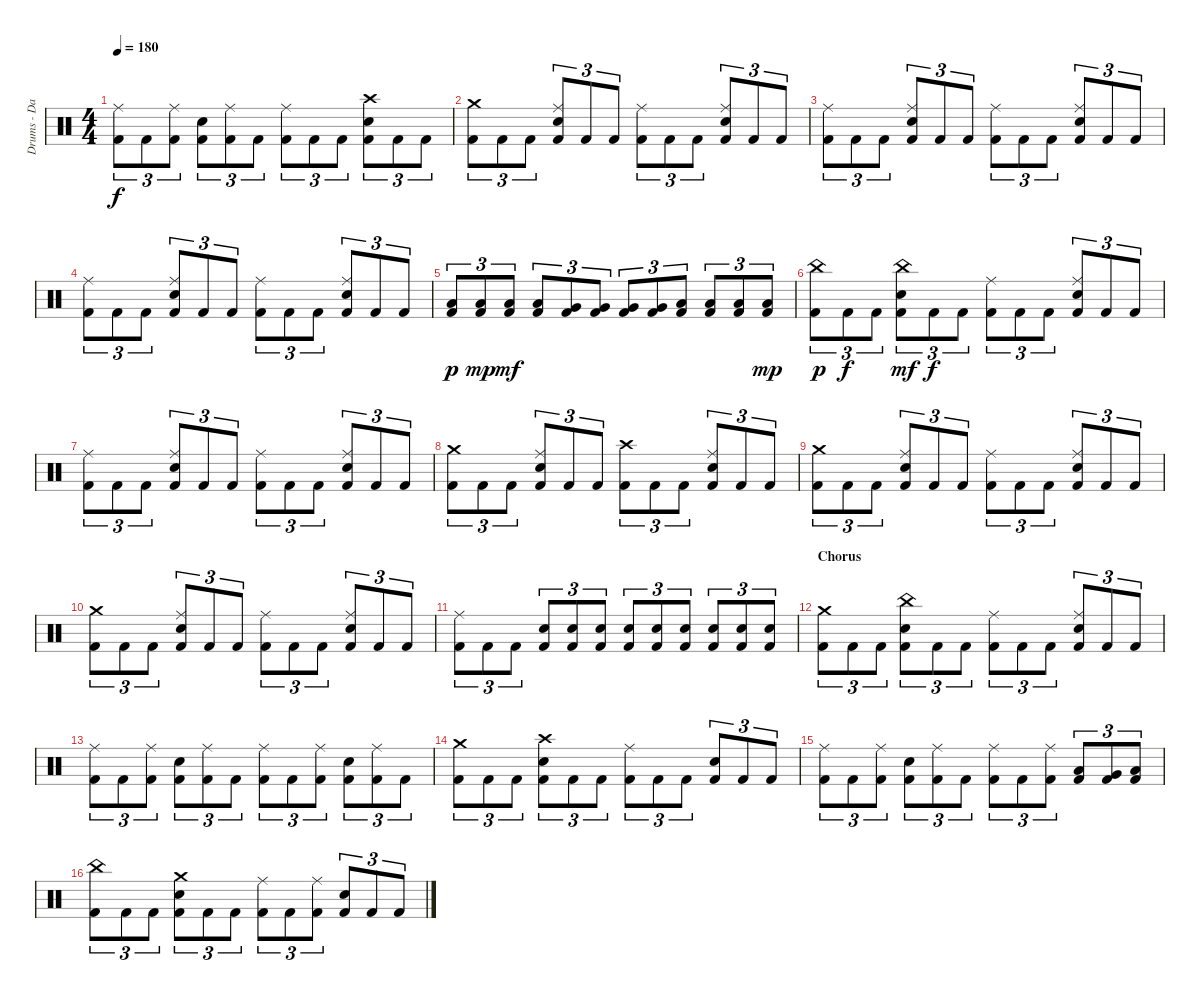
\track ("Drums - Dan Zimmermann" "Drums - Da") {instrument percussion}
\staff {score}
\articulation defaults
\ts (4 4)
\tempo 180
\clef neutral
\ks c
("Kick (hit) 2" "Ride (middle)").8{tu (3 2) dy f} "Kick (hit) 2".8{tu (3 2)} ("Kick (hit) 2" "Ride (middle)").8{tu (3 2)} ("Kick (hit) 2" "Electric Snare (hit)").8{tu (3 2)} ("Kick (hit) 2" "Ride (middle)").8{tu (3 2)} "Kick (hit) 2".8{tu (3 2)} ("Kick (hit) 2" "Ride (middle)").8{tu (3 2)} "Kick (hit) 2".8{tu (3 2)} "Kick (hit) 2".8{tu (3 2)} ("Kick (hit) 2" "Electric Snare (hit)" "Crash high (hit)").8{tu (3 2)} "Kick (hit) 2".8{tu (3 2)} "Kick (hit) 2".8{tu (3 2)} |
("Kick (hit) 2" "Crash medium (hit)").8{tu (3 2)} "Kick (hit) 2".8{tu (3 2)} "Kick (hit) 2".8{tu (3 2)} ("Kick (hit) 2" "Electric Snare (hit)" "Ride (middle)").8{tu (3 2)} "Kick (hit) 2".8{tu (3 2)} "Kick (hit) 2".8{tu (3 2)} ("Kick (hit) 2" "Ride (middle)").8{tu (3 2)} "Kick (hit) 2".8{tu (3 2)} "Kick (hit) 2".8{tu (3 2)} ("Kick (hit) 2" "Electric Snare (hit)" "Ride (middle)").8{tu (3 2)} "Kick (hit) 2".8{tu (3 2)} "Kick (hit) 2".8{tu (3 2)} |
("Kick (hit) 2" "Ride (middle)").8{tu (3 2)} "Kick (hit) 2".8{tu (3 2)} "Kick (hit) 2".8{tu (3 2)} ("Kick (hit) 2" "Electric Snare (hit)" "Ride (middle)").8{tu (3 2)} "Kick (hit) 2".8{tu (3 2)} "Kick (hit) 2".8{tu (3 2)} ("Kick (hit) 2" "Ride (middle)").8{tu (3 2)} "Kick (hit) 2".8{tu (3 2)} "Kick (hit) 2".8{tu (3 2)} ("Kick (hit) 2" "Electric Snare (hit)" "Ride (middle)").8{tu (3 2)} "Kick (hit) 2".8{tu (3 2)} "Kick (hit) 2".8{tu (3 2)} |
("Kick (hit) 2" "Ride (middle)").8{tu (3 2)} "Kick (hit) 2".8{tu (3 2)} "Kick (hit) 2".8{tu (3 2)} ("Kick (hit) 2" "Electric Snare (hit)" "Ride (middle)").8{tu (3 2)} "Kick (hit) 2".8{tu (3 2)} "Kick (hit) 2".8{tu (3 2)} ("Kick (hit) 2" "Ride (middle)").8{tu (3 2)} "Kick (hit) 2".8{tu (3 2)} "Kick (hit) 2".8{tu (3 2)} ("Kick (hit) 2" "Electric Snare (hit)" "Ride (middle)").8{tu (3 2)} "Kick (hit) 2".8{tu (3 2)} "Kick (hit) 2".8{tu (3 2)} |
("Kick (hit) 2" "Low Tom (hit)").8{tu (3 2) dy p} ("Kick (hit) 2" "Low Tom (hit)").8{tu (3 2) dy mp} ("Kick (hit) 2" "Low Tom (hit)").8{tu (3 2) dy mf} ("Kick (hit) 2" "Low Tom (hit)").8{tu (3 2)} ("Kick (hit) 2" "Very Low Tom (hit)").8{tu (3 2)} ("Kick (hit) 2" "Very Low Tom (hit)").8{tu (3 2)} ("Kick (hit) 2" "Very Low Tom (hit)").8{tu (3 2)} ("Kick (hit) 2" "Very Low Tom (hit)").8{tu (3 2)} ("Kick (hit) 2" "Low Floor Tom (hit)").8{tu (3 2)} ("Kick (hit) 2" "Low Floor Tom (hit)").8{tu (3 2)} ("Kick (hit) 2" "Low Floor Tom (hit)").8{tu (3 2)} ("Kick (hit) 2" "Low Floor Tom (hit)").8{tu (3 2) dy mp} |
("Kick (hit) 2" "China (hit)").8{tu (3 2) dy p} "Kick (hit) 2".8{tu (3 2) dy f} "Kick (hit) 2".8{tu (3 2)} ("Kick (hit) 2" "Electric Snare (hit)" "China (hit)").8{tu (3 2) dy mf} "Kick (hit) 2".8{tu (3 2) dy f} "Kick (hit) 2".8{tu (3 2)} ("Kick (hit) 2" "Ride (middle)").8{tu (3 2)} "Kick (hit) 2".8{tu (3 2)} "Kick (hit) 2".8{tu (3 2)} ("Kick (hit) 2" "Electric Snare (hit)" "Ride (middle)").8{tu (3 2)} "Kick (hit) 2".8{tu (3 2)} "Kick (hit) 2".8{tu (3 2)} |
("Kick (hit) 2" "Ride (middle)").8{tu (3 2)} "Kick (hit) 2".8{tu (3 2)} "Kick (hit) 2".8{tu (3 2)} ("Kick (hit) 2" "Electric Snare (hit)" "Ride (middle)").8{tu (3 2)} "Kick (hit) 2".8{tu (3 2)} "Kick (hit) 2".8{tu (3 2)} ("Kick (hit) 2" "Ride (middle)").8{tu (3 2)} "Kick (hit) 2".8{tu (3 2)} "Kick (hit) 2".8{tu (3 2)} ("Kick (hit) 2" "Electric Snare (hit)" "Ride (middle)").8{tu (3 2)} "Kick (hit) 2".8{tu (3 2)} "Kick (hit) 2".8{tu (3 2)} |
("Kick (hit) 2" "Crash medium (hit)").8{tu (3 2)} "Kick (hit) 2".8{tu (3 2)} "Kick (hit) 2".8{tu (3 2)} ("Kick (hit) 2" "Electric Snare (hit)" "Ride (middle)").8{tu (3 2)} "Kick (hit) 2".8{tu (3 2)} "Kick (hit) 2".8{tu (3 2)} ("Kick (hit) 2" "Crash high (hit)").8{tu (3 2)} "Kick (hit) 2".8{tu (3 2)} "Kick (hit) 2".8{tu (3 2)} ("Kick (hit) 2" "Electric Snare (hit)" "Ride (middle)").8{tu (3 2)} "Kick (hit) 2".8{tu (3 2)} "Kick (hit) 2".8{tu (3 2)} |
("Kick (hit) 2" "Crash medium (hit)").8{tu (3 2)} "Kick (hit) 2".8{tu (3 2)} "Kick (hit) 2".8{tu (3 2)} ("Kick (hit) 2" "Electric Snare (hit)" "Ride (middle)").8{tu (3 2)} "Kick (hit) 2".8{tu (3 2)} "Kick (hit) 2".8{tu (3 2)} ("Kick (hit) 2" "Ride (middle)").8{tu (3 2)} "Kick (hit) 2".8{tu (3 2)} "Kick (hit) 2".8{tu (3 2)} ("Kick (hit) 2" "Electric Snare (hit)" "Ride (middle)").8{tu (3 2)} "Kick (hit) 2".8{tu (3 2)} "Kick (hit) 2".8{tu (3 2)} |
("Kick (hit) 2" "Crash medium (hit)").8{tu (3 2)} "Kick (hit) 2".8{tu (3 2)} "Kick (hit) 2".8{tu (3 2)} ("Kick (hit) 2" "Electric Snare (hit)" "Ride (middle)").8{tu (3 2)} "Kick (hit) 2".8{tu (3 2)} "Kick (hit) 2".8{tu (3 2)} ("Kick (hit) 2" "Ride (middle)").8{tu (3 2)} "Kick (hit) 2".8{tu (3 2)} "Kick (hit) 2".8{tu (3 2)} ("Kick (hit) 2" "Electric Snare (hit)" "Ride (middle)").8{tu (3 2)} "Kick (hit) 2".8{tu (3 2)} "Kick (hit) 2".8{tu (3 2)} |
("Kick (hit) 2" "Ride (middle)").8{tu (3 2)} "Kick (hit) 2".8{tu (3 2)} "Kick (hit) 2".8{tu (3 2)} ("Kick (hit) 2" "Electric Snare (hit)").8{tu (3 2)} ("Kick (hit) 2" "Electric Snare (hit)").8{tu (3 2)} ("Kick (hit) 2" "Electric Snare (hit)").8{tu (3 2)} ("Kick (hit) 2" "Electric Snare (hit)").8{tu (3 2)} ("Kick (hit) 2" "Electric Snare (hit)").8{tu (3 2)} ("Kick (hit) 2" "Electric Snare (hit)").8{tu (3 2)} ("Kick (hit) 2" "Electric Snare (hit)").8{tu (3 2)} ("Kick (hit) 2" "Electric Snare (hit)").8{tu (3 2)} ("Kick (hit) 2" "Electric Snare (hit)").8{tu (3 2)} |
\section ("" "Chorus")
("Kick (hit) 2" "Crash medium (hit)").8{tu (3 2)} "Kick (hit) 2".8{tu (3 2)} "Kick (hit) 2".8{tu (3 2)} ("Kick (hit) 2" "Electric Snare (hit)" "China (hit)").8{tu (3 2)} "Kick (hit) 2".8{tu (3 2)} "Kick (hit) 2".8{tu (3 2)} ("Kick (hit) 2" "Ride (middle)").8{tu (3 2)} "Kick (hit) 2".8{tu (3 2)} "Kick (hit) 2".8{tu (3 2)} ("Kick (hit) 2" "Electric Snare (hit)" "Ride (middle)").8{tu (3 2)} "Kick (hit) 2".8{tu (3 2)} "Kick (hit) 2".8{tu (3 2)} |
("Kick (hit) 2" "Ride (middle)").8{tu (3 2)} "Kick (hit) 2".8{tu (3 2)} ("Kick (hit) 2" "Ride (middle)").8{tu (3 2)} ("Kick (hit) 2" "Electric Snare (hit)").8{tu (3 2)} ("Kick (hit) 2" "Ride (middle)").8{tu (3 2)} "Kick (hit) 2".8{tu (3 2)} ("Kick (hit) 2" "Ride (middle)").8{tu (3 2)} "Kick (hit) 2".8{tu (3 2)} ("Kick (hit) 2" "Ride (middle)").8{tu (3 2)} ("Kick (hit) 2" "Electric Snare (hit)").8{tu (3 2)} ("Kick (hit) 2" "Ride (middle)").8{tu (3 2)} "Kick (hit) 2".8{tu (3 2)} |
("Kick (hit) 2" "Crash medium (hit)").8{tu (3 2)} "Kick (hit) 2".8{tu (3 2)} "Kick (hit) 2".8{tu (3 2)} ("Kick (hit) 2" "Electric Snare (hit)" "Crash high (hit)").8{tu (3 2)} "Kick (hit) 2".8{tu (3 2)} "Kick (hit) 2".8{tu (3 2)} ("Kick (hit) 2" "Ride (middle)").8{tu (3 2)} "Kick (hit) 2".8{tu (3 2)} "Kick (hit) 2".8{tu (3 2)} ("Kick (hit) 2" "Electric Snare (hit)").8{tu (3 2)} "Kick (hit) 2".8{tu (3 2)} "Kick (hit) 2".8{tu (3 2)} |
("Kick (hit) 2" "Ride (middle)").8{tu (3 2)} "Kick (hit) 2".8{tu (3 2)} ("Kick (hit) 2" "Ride (middle)").8{tu (3 2)} ("Kick (hit) 2" "Electric Snare (hit)").8{tu (3 2)} ("Kick (hit) 2" "Ride (middle)").8{tu (3 2)} "Kick (hit) 2".8{tu (3 2)} ("Kick (hit) 2" "Ride (middle)").8{tu (3 2)} "Kick (hit) 2".8{tu (3 2)} ("Kick (hit) 2" "Ride (middle)").8{tu (3 2)} ("Kick (hit) 2" "Low Tom (hit)").8{tu (3 2)} ("Kick (hit) 2" "Very Low Tom (hit)").8{tu (3 2)} ("Kick (hit) 2" "Low Floor Tom (hit)").8{tu (3 2)} |
("Kick (hit) 2" "China (hit)").8{tu (3 2)} "Kick (hit) 2".8{tu (3 2)} "Kick (hit) 2".8{tu (3 2)} ("Kick (hit) 2" "Electric Snare (hit)" "Crash medium (hit)").8{tu (3 2)} "Kick (hit) 2".8{tu (3 2)} "Kick (hit) 2".8{tu (3 2)} ("Kick (hit) 2" "Ride (middle)").8{tu (3 2)} "Kick (hit) 2".8{tu (3 2)} ("Kick (hit) 2" "Ride (middle)").8{tu (3 2)} ("Kick (hit) 2" "Electric Snare (hit)").8{tu (3 2)} "Kick (hit) 2".8{tu (3 2)} "Kick (hit) 2".8{tu (3 2)}
